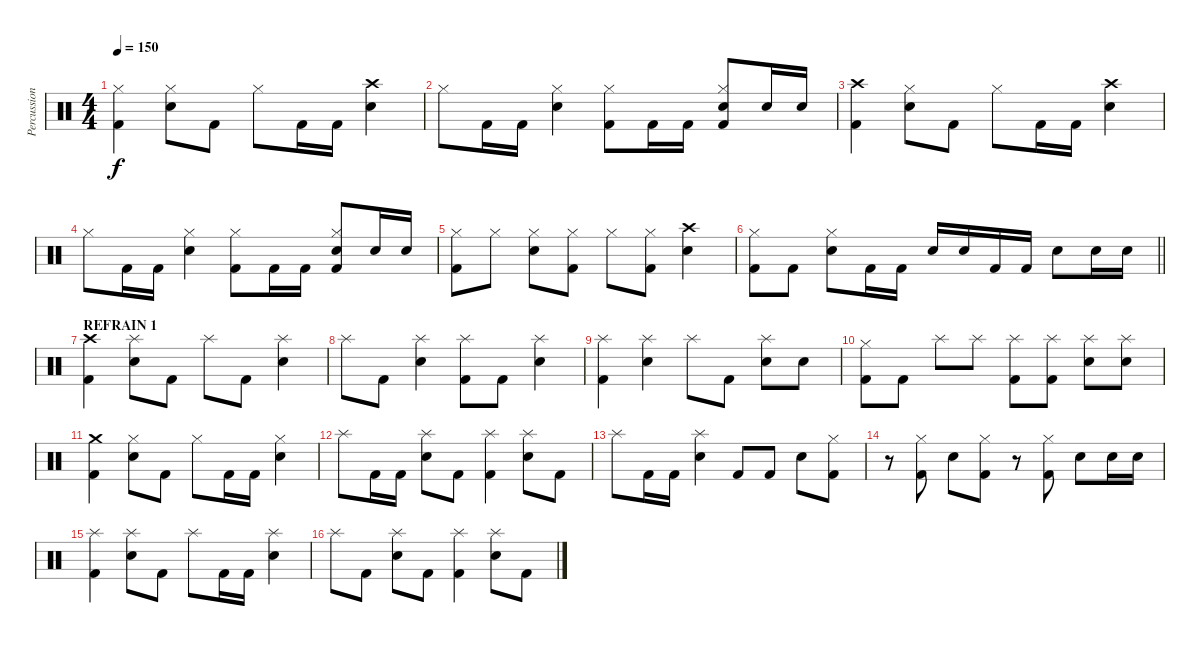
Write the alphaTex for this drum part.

\track ("Percussion" "Percussion") {instrument percussion}
\staff {score}
\articulation defaults
\ts (4 4)
\tempo 150
\clef neutral
\ks c
("Kick (hit) 2" "Hi-Hat (closed)").4{dy f} ("Electric Snare (hit)" "Hi-Hat (closed)").8 "Kick (hit) 2".8 "Hi-Hat (closed)".8 "Kick (hit) 2".16 "Kick (hit) 2".16 ("Electric Snare (hit)" "Crash high (hit)").4 |
"Hi-Hat (closed)".8 "Kick (hit) 2".16 "Kick (hit) 2".16 ("Electric Snare (hit)" "Hi-Hat (closed)").4 ("Kick (hit) 2" "Hi-Hat (closed)").8 "Kick (hit) 2".16 "Kick (hit) 2".16 ("Kick (hit) 2" "Electric Snare (hit)" "Hi-Hat (closed)").8 "Electric Snare (hit)".16 "Electric Snare (hit)".16 |
("Kick (hit) 2" "Crash high (hit)").4 ("Electric Snare (hit)" "Hi-Hat (closed)").8 "Kick (hit) 2".8 "Hi-Hat (closed)".8 "Kick (hit) 2".16 "Kick (hit) 2".16 ("Electric Snare (hit)" "Crash high (hit)").4 |
"Hi-Hat (closed)".8 "Kick (hit) 2".16 "Kick (hit) 2".16 ("Electric Snare (hit)" "Hi-Hat (closed)").4 ("Kick (hit) 2" "Hi-Hat (closed)").8 "Kick (hit) 2".16 "Kick (hit) 2".16 ("Kick (hit) 2" "Electric Snare (hit)" "Hi-Hat (closed)").8 "Electric Snare (hit)".16 "Electric Snare (hit)".16 |
("Kick (hit) 2" "Hi-Hat (closed)").8 "Hi-Hat (closed)".8 ("Electric Snare (hit)" "Hi-Hat (closed)").8 ("Kick (hit) 2" "Hi-Hat (closed)").8 "Hi-Hat (closed)".8 ("Kick (hit) 2" "Hi-Hat (closed)").8 ("Electric Snare (hit)" "Crash high (hit)").4 |
\barLineRight lightlight
("Kick (hit) 2" "Hi-Hat (closed)").8 "Kick (hit) 2".8 ("Electric Snare (hit)" "Hi-Hat (closed)").8 "Kick (hit) 2".16 "Kick (hit) 2".16 "Electric Snare (hit)".16 "Electric Snare (hit)".16 "Kick (hit) 2".16 "Kick (hit) 2".16 "Electric Snare (hit)".8 "Electric Snare (hit)".16 "Electric Snare (hit)".16 |
\section ("" "REFRAIN 1")
("Kick (hit) 2" "Crash high (hit)").4 ("Electric Snare (hit)" "Splash (hit)").8 "Kick (hit) 2".8 "Splash (hit)".8 "Kick (hit) 2".8 ("Electric Snare (hit)" "Splash (hit)").4 |
"Splash (hit)".8 "Kick (hit) 2".8 ("Electric Snare (hit)" "Splash (hit)").4 ("Kick (hit) 2" "Splash (hit)").8 "Kick (hit) 2".8 ("Electric Snare (hit)" "Splash (hit)").4 |
("Kick (hit) 2" "Splash (hit)").4 ("Electric Snare (hit)" "Splash (hit)").4 "Splash (hit)".8 "Kick (hit) 2".8 ("Electric Snare (hit)" "Splash (hit)").8 "Electric Snare (hit)".8 |
("Kick (hit) 2" "Hi-Hat (closed)").8 "Kick (hit) 2".8 "Splash (hit)".8 "Splash (hit)".8 ("Kick (hit) 2" "Splash (hit)").8 ("Kick (hit) 2" "Splash (hit)").8 ("Electric Snare (hit)" "Splash (hit)").8 ("Electric Snare (hit)" "Splash (hit)").8 |
("Kick (hit) 2" "Crash medium (hit)").4 ("Electric Snare (hit)" "Hi-Hat (closed)").8 "Kick (hit) 2".8 "Hi-Hat (closed)".8 "Kick (hit) 2".16 "Kick (hit) 2".16 ("Electric Snare (hit)" "Hi-Hat (closed)").4 |
"Splash (hit)".8 "Kick (hit) 2".16 "Kick (hit) 2".16 ("Electric Snare (hit)" "Splash (hit)").8 "Kick (hit) 2".8 ("Kick (hit) 2" "Splash (hit)").4 ("Electric Snare (hit)" "Splash (hit)").8 "Kick (hit) 2".8 |
"Splash (hit)".8 "Kick (hit) 2".16 "Kick (hit) 2".16 ("Electric Snare (hit)" "Splash (hit)").4 "Kick (hit) 2".8 "Kick (hit) 2".8 "Electric Snare (hit)".8 ("Kick (hit) 2" "Hi-Hat (closed)").8 |
r.8 ("Kick (hit) 2" "Hi-Hat (closed)").8 "Electric Snare (hit)".8 ("Kick (hit) 2" "Hi-Hat (closed)").8 r.8 ("Kick (hit) 2" "Hi-Hat (closed)").8 "Electric Snare (hit)".8 "Electric Snare (hit)".16 "Electric Snare (hit)".16 |
("Kick (hit) 2" "Splash (hit)").4 ("Electric Snare (hit)" "Splash (hit)").8 "Kick (hit) 2".8 "Splash (hit)".8 "Kick (hit) 2".16 "Kick (hit) 2".16 ("Electric Snare (hit)" "Splash (hit)").4 |
"Splash (hit)".8 "Kick (hit) 2".8 ("Electric Snare (hit)" "Splash (hit)").8 "Kick (hit) 2".8 ("Kick (hit) 2" "Splash (hit)").4 ("Electric Snare (hit)" "Splash (hit)").8 "Kick (hit) 2".8
